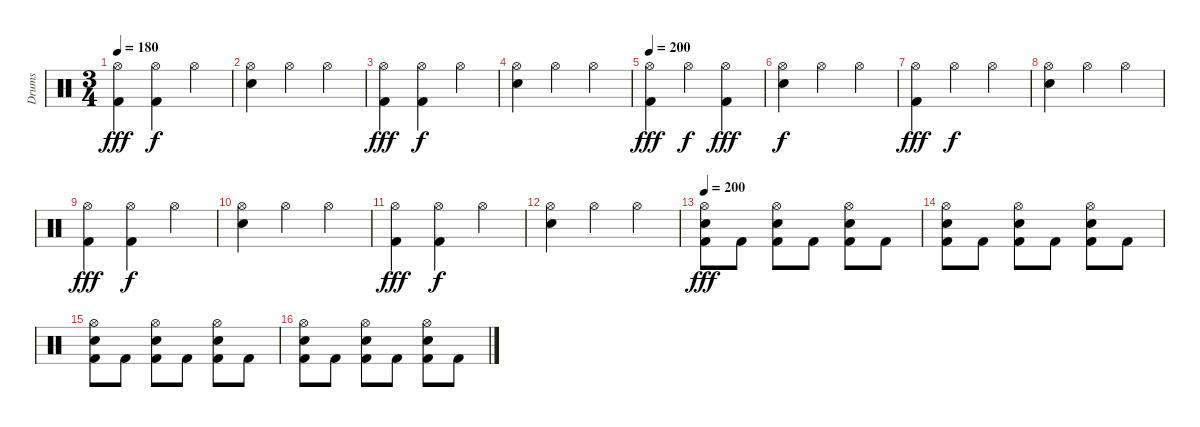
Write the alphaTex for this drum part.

\track ("Drums" "Drums") {instrument percussion}
\staff {score}
\articulation defaults
\ts (3 4)
\tempo 180
\clef neutral
\ks c
("Hi-Hat (open)" "Kick (hit) 2").4{dy fff} ("Hi-Hat (open)" "Kick (hit) 2").4{dy f} "Hi-Hat (open)".4 |
("Hi-Hat (open)" "Electric Snare (hit)").4 "Hi-Hat (open)".4 "Hi-Hat (open)".4 |
("Hi-Hat (open)" "Kick (hit) 2").4{dy fff} ("Hi-Hat (open)" "Kick (hit) 2").4{dy f} "Hi-Hat (open)".4 |
("Hi-Hat (open)" "Electric Snare (hit)").4 "Hi-Hat (open)".4 "Hi-Hat (open)".4 |
\tempo 200
("Hi-Hat (open)" "Kick (hit) 2").4{dy fff} "Hi-Hat (open)".4{dy f} ("Hi-Hat (open)" "Kick (hit) 2").4{dy fff} |
("Hi-Hat (open)" "Electric Snare (hit)").4{dy f} "Hi-Hat (open)".4 "Hi-Hat (open)".4 |
("Hi-Hat (open)" "Kick (hit) 2").4{dy fff} "Hi-Hat (open)".4{dy f} "Hi-Hat (open)".4 |
("Hi-Hat (open)" "Electric Snare (hit)").4 "Hi-Hat (open)".4 "Hi-Hat (open)".4 |
("Hi-Hat (open)" "Kick (hit) 2").4{dy fff} ("Hi-Hat (open)" "Kick (hit) 2").4{dy f} "Hi-Hat (open)".4 |
("Hi-Hat (open)" "Electric Snare (hit)").4 "Hi-Hat (open)".4 "Hi-Hat (open)".4 |
("Hi-Hat (open)" "Kick (hit) 2").4{dy fff} ("Hi-Hat (open)" "Kick (hit) 2").4{dy f} "Hi-Hat (open)".4 |
("Hi-Hat (open)" "Electric Snare (hit)").4 "Hi-Hat (open)".4 "Hi-Hat (open)".4 |
\tempo 200
("Hi-Hat (open)" "Electric Snare (hit)" "Kick (hit) 2").8{dy fff} "Kick (hit) 2".8 ("Hi-Hat (open)" "Electric Snare (hit)" "Kick (hit) 2").8 "Kick (hit) 2".8 ("Hi-Hat (open)" "Electric Snare (hit)" "Kick (hit) 2").8 "Kick (hit) 2".8 |
("Hi-Hat (open)" "Electric Snare (hit)" "Kick (hit) 2").8 "Kick (hit) 2".8 ("Hi-Hat (open)" "Electric Snare (hit)" "Kick (hit) 2").8 "Kick (hit) 2".8 ("Hi-Hat (open)" "Electric Snare (hit)" "Kick (hit) 2").8 "Kick (hit) 2".8 |
("Hi-Hat (open)" "Electric Snare (hit)" "Kick (hit) 2").8 "Kick (hit) 2".8 ("Hi-Hat (open)" "Electric Snare (hit)" "Kick (hit) 2").8 "Kick (hit) 2".8 ("Hi-Hat (open)" "Electric Snare (hit)" "Kick (hit) 2").8 "Kick (hit) 2".8 |
("Hi-Hat (open)" "Electric Snare (hit)" "Kick (hit) 2").8 "Kick (hit) 2".8 ("Hi-Hat (open)" "Electric Snare (hit)" "Kick (hit) 2").8 "Kick (hit) 2".8 ("Hi-Hat (open)" "Electric Snare (hit)" "Kick (hit) 2").8 "Kick (hit) 2".8
